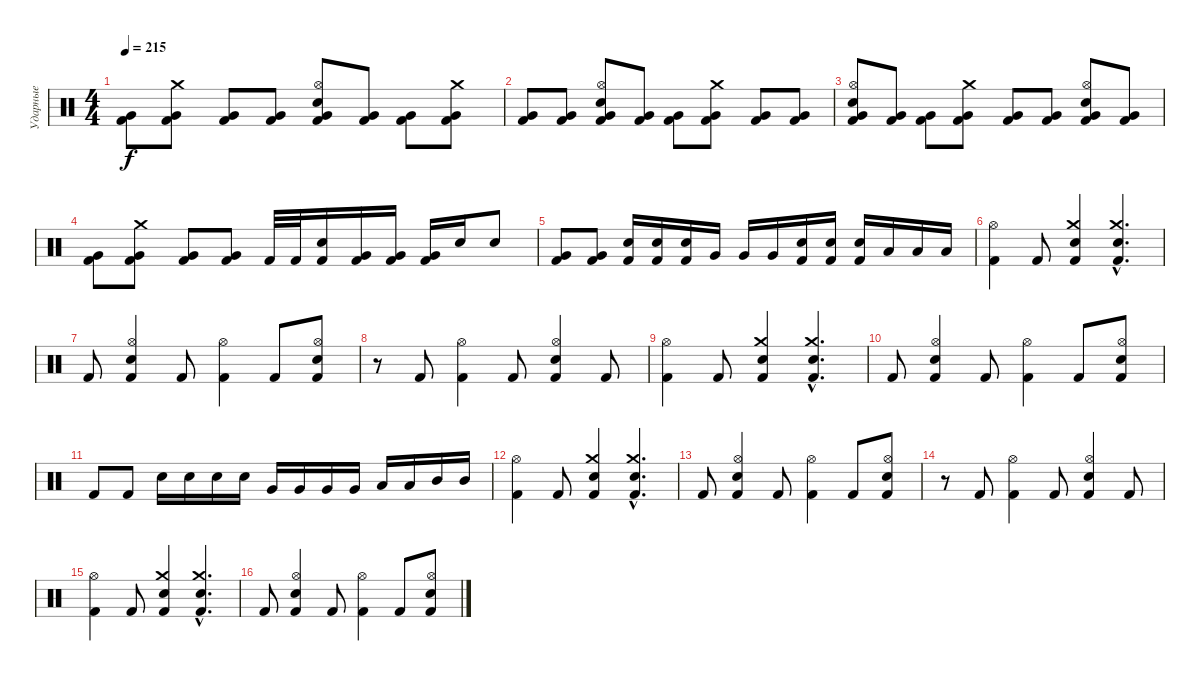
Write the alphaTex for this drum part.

\track ("Ударные" "Ударные") {instrument percussion}
\staff {score}
\articulation defaults
\ts (4 4)
\tempo 215
\clef neutral
\ks c
("Very Low Tom (hit)" "Kick (hit) 2").8{dy f} ("Crash medium (hit)" "Very Low Tom (hit)" "Kick (hit) 2").8 ("Very Low Tom (hit)" "Kick (hit) 2").8 ("Very Low Tom (hit)" "Kick (hit) 2").8 ("Hi-Hat (open)" "Snare (hit) 2" "Very Low Tom (hit)" "Kick (hit) 2").8 ("Very Low Tom (hit)" "Kick (hit) 2").8 ("Very Low Tom (hit)" "Kick (hit) 2").8 ("Crash medium (hit)" "Very Low Tom (hit)" "Kick (hit) 2").8 |
("Very Low Tom (hit)" "Kick (hit) 2").8 ("Very Low Tom (hit)" "Kick (hit) 2").8 ("Hi-Hat (open)" "Snare (hit) 2" "Very Low Tom (hit)" "Kick (hit) 2").8 ("Very Low Tom (hit)" "Kick (hit) 2").8 ("Very Low Tom (hit)" "Kick (hit) 2").8 ("Crash medium (hit)" "Very Low Tom (hit)" "Kick (hit) 2").8 ("Very Low Tom (hit)" "Kick (hit) 2").8 ("Very Low Tom (hit)" "Kick (hit) 2").8 |
("Hi-Hat (open)" "Snare (hit) 2" "Very Low Tom (hit)" "Kick (hit) 2").8 ("Very Low Tom (hit)" "Kick (hit) 2").8 ("Very Low Tom (hit)" "Kick (hit) 2").8 ("Crash medium (hit)" "Very Low Tom (hit)" "Kick (hit) 2").8 ("Very Low Tom (hit)" "Kick (hit) 2").8 ("Very Low Tom (hit)" "Kick (hit) 2").8 ("Hi-Hat (open)" "Snare (hit) 2" "Very Low Tom (hit)" "Kick (hit) 2").8 ("Very Low Tom (hit)" "Kick (hit) 2").8 |
("Very Low Tom (hit)" "Kick (hit) 2").8 ("Crash medium (hit)" "Very Low Tom (hit)" "Kick (hit) 2").8 ("Very Low Tom (hit)" "Kick (hit) 2").8 ("Very Low Tom (hit)" "Kick (hit) 2").8 "Kick (hit) 2".32 "Kick (hit) 2".32 ("Snare (hit)" "Kick (hit) 2").16 ("Very Low Tom (hit)" "Kick (hit) 2").16 ("Very Low Tom (hit)" "Kick (hit) 2").16 ("Very Low Tom (hit)" "Kick (hit) 2").16 "Snare (hit) 2".16 "Snare (hit) 2".8 |
("Very Low Tom (hit)" "Kick (hit) 2").8 ("Very Low Tom (hit)" "Kick (hit) 2").8 ("Snare (hit) 2" "Kick (hit) 2").16 ("Snare (hit) 2" "Kick (hit) 2").16 ("Snare (hit) 2" "Kick (hit) 2").16 "Very Low Tom (hit)".16 "Very Low Tom (hit)".16 "Very Low Tom (hit)".16 ("Snare (hit) 2" "Kick (hit) 2").16 ("Snare (hit) 2" "Kick (hit) 2").16 ("Snare (hit) 2" "Kick (hit) 2").16 "Low Tom (hit)".16 "Low Tom (hit)".16 "Low Tom (hit)".16 |
("Hi-Hat (open)" "Kick (hit) 2").4 "Kick (hit) 2".8 ("Crash medium (hit)" "Snare (hit) 2" "Kick (hit) 2").4 ("Crash medium (hit)"{hac} "Snare (hit) 2"{hac} "Kick (hit) 2"{hac}).4{d} |
"Kick (hit) 2".8 ("Hi-Hat (open)" "Snare (hit) 2" "Kick (hit) 2").4 "Kick (hit) 2".8 ("Hi-Hat (open)" "Kick (hit) 2").4 "Kick (hit) 2".8 ("Hi-Hat (open)" "Snare (hit) 2" "Kick (hit) 2").8 |
r.8 "Kick (hit) 2".8 ("Hi-Hat (open)" "Kick (hit) 2").4 "Kick (hit) 2".8 ("Hi-Hat (open)" "Snare (hit) 2" "Kick (hit) 2").4 "Kick (hit) 2".8 |
("Hi-Hat (open)" "Kick (hit) 2").4 "Kick (hit) 2".8 ("Crash medium (hit)" "Snare (hit) 2" "Kick (hit) 2").4 ("Crash medium (hit)"{hac} "Snare (hit) 2"{hac} "Kick (hit) 2"{hac}).4{d} |
"Kick (hit) 2".8 ("Hi-Hat (open)" "Snare (hit) 2" "Kick (hit) 2").4 "Kick (hit) 2".8 ("Hi-Hat (open)" "Kick (hit) 2").4 "Kick (hit) 2".8 ("Hi-Hat (open)" "Snare (hit) 2" "Kick (hit) 2").8 |
"Kick (hit) 2".8 "Kick (hit) 2".8 "Snare (hit) 2".16 "Snare (hit) 2".16 "Snare (hit) 2".16 "Snare (hit) 2".16 "Very Low Tom (hit)".16 "Very Low Tom (hit)".16 "Very Low Tom (hit)".16 "Very Low Tom (hit)".16 "Low Tom (hit)".16 "Low Tom (hit)".16 "Mid Tom (hit)".16 "Mid Tom (hit)".16 |
("Hi-Hat (open)" "Kick (hit) 2").4 "Kick (hit) 2".8 ("Crash medium (hit)" "Snare (hit) 2" "Kick (hit) 2").4 ("Crash medium (hit)"{hac} "Snare (hit) 2"{hac} "Kick (hit) 2"{hac}).4{d} |
"Kick (hit) 2".8 ("Hi-Hat (open)" "Snare (hit) 2" "Kick (hit) 2").4 "Kick (hit) 2".8 ("Hi-Hat (open)" "Kick (hit) 2").4 "Kick (hit) 2".8 ("Hi-Hat (open)" "Snare (hit) 2" "Kick (hit) 2").8 |
r.8 "Kick (hit) 2".8 ("Hi-Hat (open)" "Kick (hit) 2").4 "Kick (hit) 2".8 ("Hi-Hat (open)" "Snare (hit) 2" "Kick (hit) 2").4 "Kick (hit) 2".8 |
("Hi-Hat (open)" "Kick (hit) 2").4 "Kick (hit) 2".8 ("Crash medium (hit)" "Snare (hit) 2" "Kick (hit) 2").4 ("Crash medium (hit)"{hac} "Snare (hit) 2"{hac} "Kick (hit) 2"{hac}).4{d} |
"Kick (hit) 2".8 ("Hi-Hat (open)" "Snare (hit) 2" "Kick (hit) 2").4 "Kick (hit) 2".8 ("Hi-Hat (open)" "Kick (hit) 2").4 "Kick (hit) 2".8 ("Hi-Hat (open)" "Snare (hit) 2" "Kick (hit) 2").8
